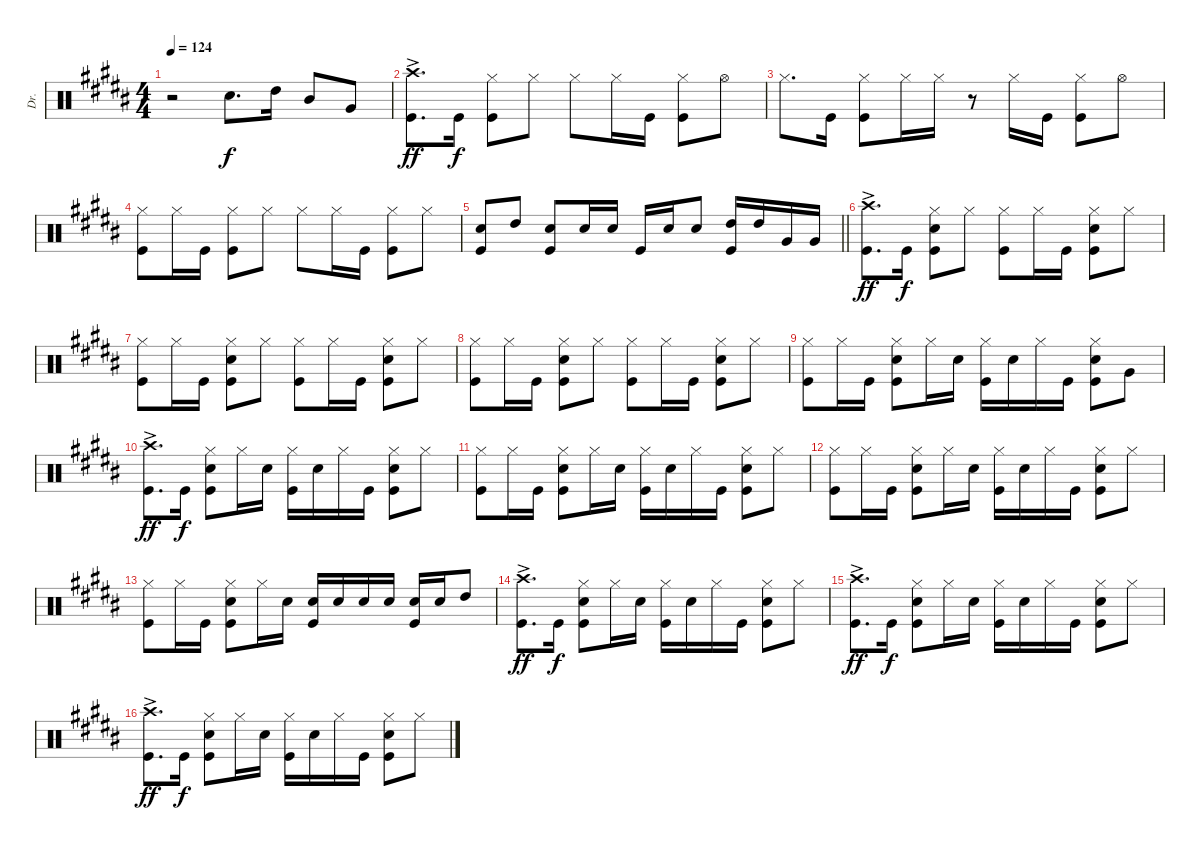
\track ("Dr." "Dr.") {instrument percussion}
\staff {score}
\articulation defaults
\ts (4 4)
\tempo 124
\clef neutral
\ks b
r.2{dy f volume 11} "Snare (hit) 2".8{d} "High Tom (hit)".16 "Mid Tom (hit)".8 "Very Low Tom (hit)".8 |
("Crash high (hit)"{ac} "Kick (hit)"{ac}).8{d dy ff} "Kick (hit)".16{dy f} ("Kick (hit)" "Hi-Hat (closed)").8 "Hi-Hat (closed)".8 "Hi-Hat (closed)".8 "Hi-Hat (closed)".16 "Kick (hit)".16 ("Hi-Hat (closed)" "Kick (hit)").8 "Hi-Hat (open)".8 |
"Hi-Hat (closed)".8{d} "Kick (hit)".16 ("Kick (hit)" "Hi-Hat (closed)").8 "Hi-Hat (closed)".16 "Hi-Hat (closed)".16 r.8 "Hi-Hat (closed)".16 "Kick (hit)".16 ("Hi-Hat (closed)" "Kick (hit)").8 "Hi-Hat (open)".8 |
("Hi-Hat (closed)" "Kick (hit)").8 "Hi-Hat (closed)".16 "Kick (hit)".16 ("Hi-Hat (closed)" "Kick (hit)").8 "Hi-Hat (closed)".8 "Hi-Hat (closed)".8 "Hi-Hat (closed)".16 "Kick (hit)".16 ("Hi-Hat (closed)" "Kick (hit)").8 "Hi-Hat (closed)".8 |
\barLineRight lightlight
("Snare (hit) 2" "Kick (hit)").8 "High Tom (hit)".8 ("Kick (hit)" "Snare (hit) 2").8 "Snare (hit) 2".16 "Snare (hit) 2".16 "Kick (hit)".16 "Snare (hit) 2".16 "Snare (hit) 2".8 ("Kick (hit)" "High Tom (hit)").16 "High Tom (hit)".16 "Very Low Tom (hit)".16 "Very Low Tom (hit)".16 |
("Crash high (hit)"{ac} "Kick (hit)"{ac}).8{d dy ff} "Kick (hit)".16{dy f} ("Kick (hit)" "Snare (hit) 2" "Hi-Hat (closed)").8 "Hi-Hat (closed)".8 ("Hi-Hat (closed)" "Kick (hit)").8 "Hi-Hat (closed)".16 "Kick (hit)".16 ("Hi-Hat (closed)" "Kick (hit)" "Snare (hit) 2").8 "Hi-Hat (closed)".8 |
("Hi-Hat (closed)" "Kick (hit)").8 "Hi-Hat (closed)".16 "Kick (hit)".16 ("Hi-Hat (closed)" "Kick (hit)" "Snare (hit) 2").8 "Hi-Hat (closed)".8 ("Hi-Hat (closed)" "Kick (hit)").8 "Hi-Hat (closed)".16 "Kick (hit)".16 ("Hi-Hat (closed)" "Kick (hit)" "Snare (hit) 2").8 "Hi-Hat (closed)".8 |
("Kick (hit)" "Hi-Hat (closed)").8 "Hi-Hat (closed)".16 "Kick (hit)".16 ("Kick (hit)" "Snare (hit) 2" "Hi-Hat (closed)").8 "Hi-Hat (closed)".8 ("Hi-Hat (closed)" "Kick (hit)").8 "Hi-Hat (closed)".16 "Kick (hit)".16 ("Hi-Hat (closed)" "Kick (hit)" "Snare (hit) 2").8 "Hi-Hat (closed)".8 |
("Hi-Hat (closed)" "Kick (hit)").8 "Hi-Hat (closed)".16 "Kick (hit)".16 ("Hi-Hat (closed)" "Kick (hit)" "Snare (hit) 2").8 "Hi-Hat (closed)".16 "Snare (hit) 2".16 ("Kick (hit)" "Hi-Hat (closed)").16 "Snare (hit) 2".16 "Hi-Hat (closed)".16 "Kick (hit)".16 ("Hi-Hat (closed)" "Kick (hit)" "Snare (hit) 2").8 "Very Low Tom (hit)".8 |
("Crash high (hit)"{ac} "Kick (hit)"{ac}).8{d dy ff} "Kick (hit)".16{dy f} ("Kick (hit)" "Snare (hit) 2" "Hi-Hat (closed)").8 "Hi-Hat (closed)".16 "Snare (hit) 2".16 ("Kick (hit)" "Hi-Hat (closed)").16 "Snare (hit) 2".16 "Hi-Hat (closed)".16 "Kick (hit)".16 ("Hi-Hat (closed)" "Kick (hit)" "Snare (hit) 2").8 "Hi-Hat (closed)".8 |
("Hi-Hat (closed)" "Kick (hit)").8 "Hi-Hat (closed)".16 "Kick (hit)".16 ("Hi-Hat (closed)" "Kick (hit)" "Snare (hit) 2").8 "Hi-Hat (closed)".16 "Snare (hit) 2".16 ("Kick (hit)" "Hi-Hat (closed)").16 "Snare (hit) 2".16 "Hi-Hat (closed)".16 "Kick (hit)".16 ("Hi-Hat (closed)" "Kick (hit)" "Snare (hit) 2").8 "Hi-Hat (closed)".8 |
("Hi-Hat (closed)" "Kick (hit)").8 "Hi-Hat (closed)".16 "Kick (hit)".16 ("Hi-Hat (closed)" "Kick (hit)" "Snare (hit) 2").8 "Hi-Hat (closed)".16 "Snare (hit) 2".16 ("Kick (hit)" "Hi-Hat (closed)").16 "Snare (hit) 2".16 "Hi-Hat (closed)".16 "Kick (hit)".16 ("Hi-Hat (closed)" "Kick (hit)" "Snare (hit) 2").8 "Hi-Hat (closed)".8 |
("Hi-Hat (closed)" "Kick (hit)").8 "Hi-Hat (closed)".16 "Kick (hit)".16 ("Hi-Hat (closed)" "Kick (hit)" "Snare (hit) 2").8 "Hi-Hat (closed)".16 "Snare (hit) 2".16 ("Snare (hit) 2" "Kick (hit)").16 "Snare (hit) 2".16 "Snare (hit) 2".16 "Snare (hit) 2".16 ("Snare (hit) 2" "Kick (hit)").16 "Snare (hit) 2".16 "High Tom (hit)".8 |
("Crash high (hit)"{ac} "Kick (hit)"{ac}).8{d dy ff} "Kick (hit)".16{dy f} ("Kick (hit)" "Snare (hit) 2" "Hi-Hat (closed)").8 "Hi-Hat (closed)".16 "Snare (hit) 2".16 ("Kick (hit)" "Hi-Hat (closed)").16 "Snare (hit) 2".16 "Hi-Hat (closed)".16 "Kick (hit)".16 ("Hi-Hat (closed)" "Kick (hit)" "Snare (hit) 2").8 "Hi-Hat (closed)".8 |
("Crash high (hit)"{ac} "Kick (hit)"{ac}).8{d dy ff} "Kick (hit)".16{dy f} ("Kick (hit)" "Snare (hit) 2" "Hi-Hat (closed)").8 "Hi-Hat (closed)".16 "Snare (hit) 2".16 ("Kick (hit)" "Hi-Hat (closed)").16 "Snare (hit) 2".16 "Hi-Hat (closed)".16 "Kick (hit)".16 ("Hi-Hat (closed)" "Kick (hit)" "Snare (hit) 2").8 "Hi-Hat (closed)".8 |
("Crash high (hit)"{ac} "Kick (hit)"{ac}).8{d dy ff} "Kick (hit)".16{dy f} ("Kick (hit)" "Snare (hit) 2" "Hi-Hat (closed)").8 "Hi-Hat (closed)".16 "Snare (hit) 2".16 ("Kick (hit)" "Hi-Hat (closed)").16 "Snare (hit) 2".16 "Hi-Hat (closed)".16 "Kick (hit)".16 ("Hi-Hat (closed)" "Kick (hit)" "Snare (hit) 2").8 "Hi-Hat (closed)".8
